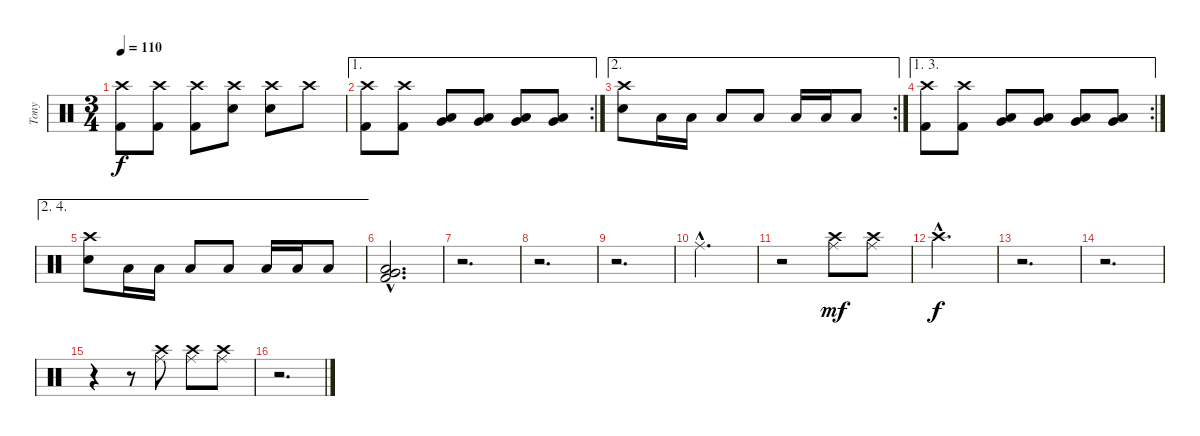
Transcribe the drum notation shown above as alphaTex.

\track ("Tony" "Tony") {instrument percussion}
\staff {score}
\articulation defaults
\ts (3 4)
\tempo 110
\clef neutral
\ks c
("Kick (hit) 2" "Crash high (hit)").8{dy f} ("Kick (hit) 2" "Crash high (hit)").8 ("Kick (hit) 2" "Crash high (hit)").8 ("Crash high (hit)" "Snare (hit) 2").8 ("Crash high (hit)" "Snare (hit) 2").8 "Crash high (hit)".8 |
\ae 1
\rc 2
("Kick (hit) 2" "Crash high (hit)").8 ("Kick (hit) 2" "Crash high (hit)").8 ("Low Tom (hit)" "Very Low Tom (hit)").8 ("Low Tom (hit)" "Very Low Tom (hit)").8 ("Low Tom (hit)" "Very Low Tom (hit)").8 ("Low Tom (hit)" "Very Low Tom (hit)").8 |
\ae 2
\rc 2
("Crash high (hit)" "Snare (hit) 2").8 "Low Tom (hit)".16 "Low Tom (hit)".16 "Low Tom (hit)".8 "Low Tom (hit)".8 "Low Tom (hit)".16 "Low Tom (hit)".16 "Low Tom (hit)".8 |
\ae (1 3)
\rc 2
("Kick (hit) 2" "Crash high (hit)").8 ("Kick (hit) 2" "Crash high (hit)").8 ("Low Tom (hit)" "Very Low Tom (hit)").8 ("Low Tom (hit)" "Very Low Tom (hit)").8 ("Low Tom (hit)" "Very Low Tom (hit)").8 ("Low Tom (hit)" "Very Low Tom (hit)").8 |
\ae (2 4)
("Crash high (hit)" "Snare (hit) 2").8 "Low Tom (hit)".16 "Low Tom (hit)".16 "Low Tom (hit)".8 "Low Tom (hit)".8 "Low Tom (hit)".16 "Low Tom (hit)".16 "Low Tom (hit)".8 |
("Kick (hit) 2"{hac} "Low Tom (hit)"{hac} "Very Low Tom (hit)"{hac}).2{d} |
r.2{d} |
r.2{d} |
r.2{d} |
"Ride (middle)"{hac}.2{d} |
r.2 ("Crash high (hit)" "Ride (middle)").8{dy mf} ("Crash high (hit)" "Ride (middle)").8 |
"Crash high (hit)"{hac}.2{d dy f} |
r.2{d} |
r.2{d} |
r.4 r.8 ("Crash high (hit)" "Ride (middle)").8 ("Crash high (hit)" "Ride (middle)").8 ("Crash high (hit)" "Ride (middle)").8 |
r.2{d}
